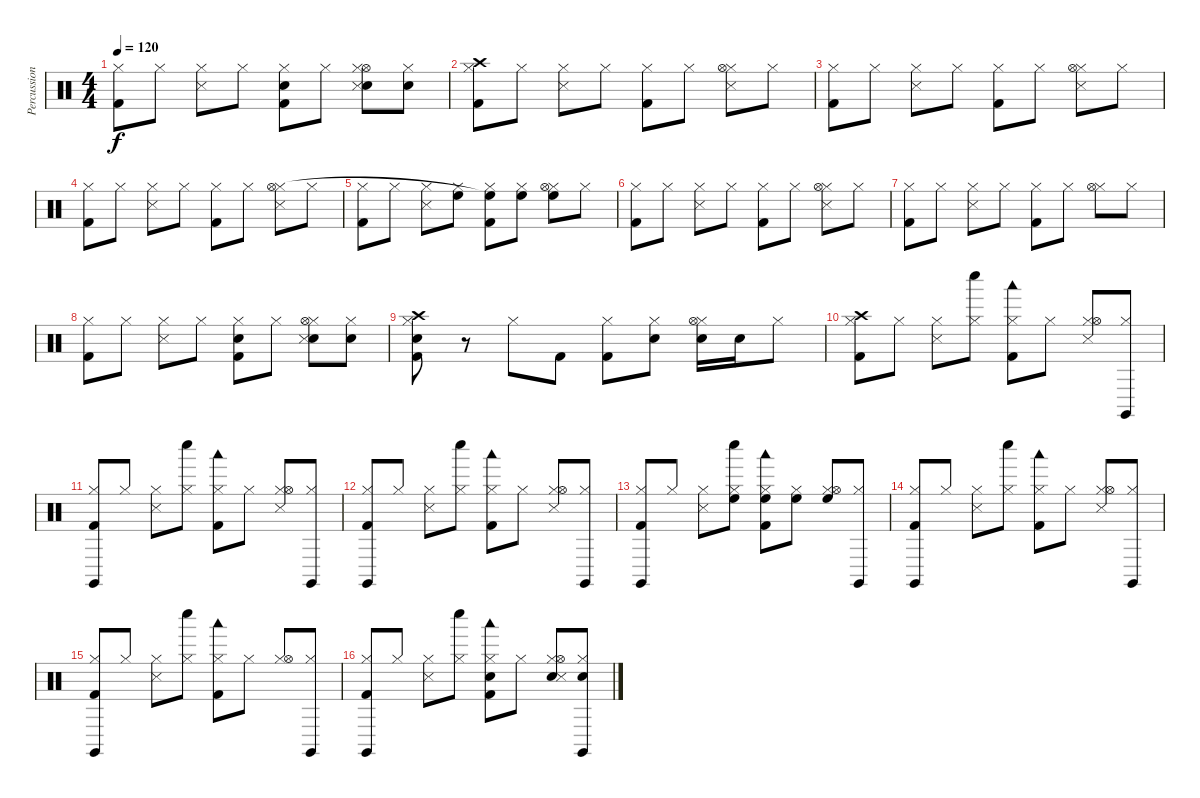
\track ("Percussion" "Percussion") {instrument percussion}
\staff {score}
\articulation defaults
\ts (4 4)
\tempo 120
\clef neutral
\ks c
("Hi-Hat (closed)" "Kick (hit) 2").8{dy f} "Hi-Hat (closed)".8 ("Hi-Hat (closed)" "Snare (side stick) 3").8 "Hi-Hat (closed)".8 ("Snare (hit) 2" "Hi-Hat (closed)" "Kick (hit) 2").8 "Hi-Hat (closed)".8 ("Snare (hit) 2" "Hi-Hat (open)" "Hi-Hat (closed)" "Snare (side stick) 3").8 ("Snare (hit) 2" "Hi-Hat (closed)").8 |
("Crash high (hit)" "Hi-Hat (closed)" "Kick (hit) 2").8 "Hi-Hat (closed)".8 ("Hi-Hat (closed)" "Snare (side stick) 3").8 "Hi-Hat (closed)".8 ("Hi-Hat (closed)" "Kick (hit) 2").8 "Hi-Hat (closed)".8 ("Snare (side stick) 3" "Hi-Hat (closed)" "Hi-Hat (open)").8 "Hi-Hat (closed)".8 |
("Hi-Hat (closed)" "Kick (hit) 2").8 "Hi-Hat (closed)".8 ("Hi-Hat (closed)" "Snare (side stick) 3").8 "Hi-Hat (closed)".8 ("Hi-Hat (closed)" "Kick (hit) 2").8 "Hi-Hat (closed)".8 ("Snare (side stick) 3" "Hi-Hat (closed)" "Hi-Hat (open)").8 "Hi-Hat (closed)".8 |
("Hi-Hat (closed)" "Kick (hit) 2").8 "Hi-Hat (closed)".8 ("Hi-Hat (closed)" "Snare (side stick) 3").8 "Hi-Hat (closed)".8 ("Hi-Hat (closed)" "Kick (hit) 2").8 "Hi-Hat (closed)".8 ("Snare (side stick) 3" "Hi-Hat (closed)" "Hi-Hat (open)").8 "Hi-Hat (closed)".8 |
("Hi-Hat (closed)" "Kick (hit) 2").8 "Hi-Hat (closed)".8 ("Hi-Hat (closed)" "Snare (side stick) 3").8 ("Hi-Hat (closed)" "High Floor Tom (hit)").8 ("Hi-Hat (closed)" "Kick (hit) 2" "High Floor Tom (hit)"{t}).8 ("Hi-Hat (closed)" "High Floor Tom (hit)").8 ("Hi-Hat (closed)" "High Floor Tom (hit)" "Hi-Hat (open)").8 "Hi-Hat (closed)".8 |
("Hi-Hat (closed)" "Kick (hit) 2").8 "Hi-Hat (closed)".8 ("Hi-Hat (closed)" "Snare (side stick) 3").8 "Hi-Hat (closed)".8 ("Hi-Hat (closed)" "Kick (hit) 2").8 "Hi-Hat (closed)".8 ("Snare (side stick) 3" "Hi-Hat (closed)" "Hi-Hat (open)").8 "Hi-Hat (closed)".8 |
("Hi-Hat (closed)" "Kick (hit) 2").8 "Hi-Hat (closed)".8 ("Hi-Hat (closed)" "Snare (side stick) 3").8 "Hi-Hat (closed)".8 ("Hi-Hat (closed)" "Kick (hit) 2").8 "Hi-Hat (closed)".8 ("Hi-Hat (closed)" "Hi-Hat (open)").8 "Hi-Hat (closed)".8 |
("Hi-Hat (closed)" "Kick (hit) 2").8 "Hi-Hat (closed)".8 ("Hi-Hat (closed)" "Snare (side stick) 3").8 "Hi-Hat (closed)".8 ("Snare (hit) 2" "Hi-Hat (closed)" "Kick (hit) 2").8 "Hi-Hat (closed)".8 ("Snare (hit) 2" "Hi-Hat (closed)" "Snare (side stick) 3" "Hi-Hat (open)").8 ("Snare (hit) 2" "Hi-Hat (closed)").8 |
("Snare (hit) 2" "Crash high (hit)" "Hi-Hat (closed)" "Kick (hit) 2").8 r.8 "Hi-Hat (closed)".8 "Kick (hit) 2".8 ("Hi-Hat (closed)" "Kick (hit) 2").8 ("Snare (hit) 2" "Hi-Hat (closed)").8 ("Snare (hit) 2" "Hi-Hat (closed)" "Hi-Hat (open)").16 "Snare (hit) 2".16 "Hi-Hat (closed)".8 |
("Crash high (hit)" "Hi-Hat (closed)" "Kick (hit) 2").8 "Hi-Hat (closed)".8 ("Hi-Hat (closed)" "Snare (side stick) 3").8 ("Whistle low (hit)" "Hi-Hat (closed)").8 ("Woodblock low (hit)" "Hi-Hat (closed)" "Kick (hit) 2").8 "Hi-Hat (closed)".8 ("Snare (side stick) 3" "Hi-Hat (closed)" "Hi-Hat (open)").8 ("Claves (hit)" "Hi-Hat (closed)").8 |
("Claves (hit)" "Hi-Hat (closed)" "Kick (hit) 2").8 "Hi-Hat (closed)".8 ("Hi-Hat (closed)" "Snare (side stick) 3").8 ("Whistle low (hit)" "Hi-Hat (closed)").8 ("Woodblock low (hit)" "Hi-Hat (closed)" "Kick (hit) 2").8 "Hi-Hat (closed)".8 ("Snare (side stick) 3" "Hi-Hat (closed)" "Hi-Hat (open)").8 ("Claves (hit)" "Hi-Hat (closed)").8 |
("Claves (hit)" "Hi-Hat (closed)" "Kick (hit) 2").8 "Hi-Hat (closed)".8 ("Hi-Hat (closed)" "Snare (side stick) 3").8 ("Whistle low (hit)" "Hi-Hat (closed)").8 ("Woodblock low (hit)" "Hi-Hat (closed)" "Kick (hit) 2").8 "Hi-Hat (closed)".8 ("Snare (side stick) 3" "Hi-Hat (closed)" "Hi-Hat (open)").8 ("Claves (hit)" "Hi-Hat (closed)").8 |
("Claves (hit)" "Hi-Hat (closed)" "Kick (hit) 2").8 "Hi-Hat (closed)".8 ("Hi-Hat (closed)" "Snare (side stick) 3").8 ("Whistle low (hit)" "Hi-Hat (closed)" "High Floor Tom (hit)").8 ("Woodblock low (hit)" "Hi-Hat (closed)" "Kick (hit) 2" "High Floor Tom (hit)").8 ("Hi-Hat (closed)" "High Floor Tom (hit)").8 ("Hi-Hat (closed)" "High Floor Tom (hit)" "Hi-Hat (open)").8 ("Claves (hit)" "Hi-Hat (closed)").8 |
("Claves (hit)" "Hi-Hat (closed)" "Kick (hit) 2").8 "Hi-Hat (closed)".8 ("Hi-Hat (closed)" "Snare (side stick) 3").8 ("Whistle low (hit)" "Hi-Hat (closed)").8 ("Woodblock low (hit)" "Hi-Hat (closed)" "Kick (hit) 2").8 "Hi-Hat (closed)".8 ("Snare (side stick) 3" "Hi-Hat (closed)" "Hi-Hat (open)").8 ("Claves (hit)" "Hi-Hat (closed)").8 |
("Claves (hit)" "Hi-Hat (closed)" "Kick (hit) 2").8 "Hi-Hat (closed)".8 ("Hi-Hat (closed)" "Snare (side stick) 3").8 ("Whistle low (hit)" "Hi-Hat (closed)").8 ("Woodblock low (hit)" "Hi-Hat (closed)" "Kick (hit) 2").8 "Hi-Hat (closed)".8 ("Hi-Hat (closed)" "Hi-Hat (open)").8 ("Claves (hit)" "Hi-Hat (closed)").8 |
("Claves (hit)" "Hi-Hat (closed)" "Kick (hit) 2").8 "Hi-Hat (closed)".8 ("Hi-Hat (closed)" "Snare (side stick) 3").8 ("Whistle low (hit)" "Hi-Hat (closed)").8 ("Snare (hit) 2" "Hi-Hat (closed)" "Kick (hit) 2" "Woodblock low (hit)").8 "Hi-Hat (closed)".8 ("Snare (hit) 2" "Hi-Hat (closed)" "Snare (side stick) 3" "Hi-Hat (open)").8 ("Snare (hit) 2" "Hi-Hat (closed)" "Claves (hit)").8
